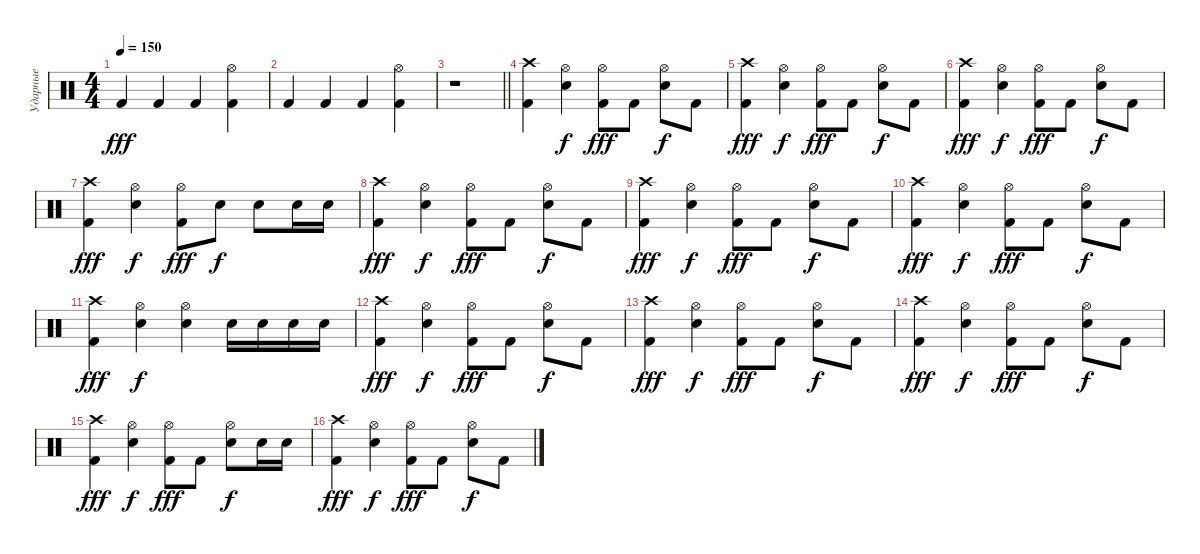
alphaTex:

\track ("Ударные" "Ударные") {instrument percussion}
\staff {score}
\articulation defaults
\ts (4 4)
\tempo 150
\clef neutral
\ks c "Kick (hit) 2".4{dy fff} "Kick (hit) 2".4 "Kick (hit) 2".4
("Kick (hit) 2" "Hi-Hat (open)").4 |
"Kick (hit) 2".4 "Kick (hit) 2".4 "Kick (hit) 2".4 ("Kick (hit) 2" "Hi-Hat (open)").4 |
\barLineRight lightlight
r.1 |
("Kick (hit) 2" "Crash high (hit)").4 ("Snare (hit) 2" "Hi-Hat (open)").4{dy f} ("Kick (hit) 2" "Hi-Hat (open)").8{dy fff} "Kick (hit) 2".8 ("Snare (hit) 2" "Hi-Hat (open)").8{dy f} "Kick (hit) 2".8 |
("Kick (hit) 2" "Crash high (hit)").4{dy fff} ("Snare (hit) 2" "Hi-Hat (open)").4{dy f} ("Kick (hit) 2" "Hi-Hat (open)").8{dy fff} "Kick (hit) 2".8 ("Snare (hit) 2" "Hi-Hat (open)").8{dy f} "Kick (hit) 2".8 |
("Kick (hit) 2" "Crash high (hit)").4{dy fff} ("Snare (hit) 2" "Hi-Hat (open)").4{dy f} ("Kick (hit) 2" "Hi-Hat (open)").8{dy fff} "Kick (hit) 2".8 ("Snare (hit) 2" "Hi-Hat (open)").8{dy f} "Kick (hit) 2".8 |
("Kick (hit) 2" "Crash high (hit)").4{dy fff} ("Snare (hit) 2" "Hi-Hat (open)").4{dy f} ("Kick (hit) 2" "Hi-Hat (open)").8{dy fff} "Snare (hit) 2".8{dy f} "Snare (hit) 2".8 "Snare (hit) 2".16 "Snare (hit) 2".16 |
("Kick (hit) 2" "Crash high (hit)").4{dy fff} ("Snare (hit) 2" "Hi-Hat (open)").4{dy f} ("Kick (hit) 2" "Hi-Hat (open)").8{dy fff} "Kick (hit) 2".8 ("Snare (hit) 2" "Hi-Hat (open)").8{dy f} "Kick (hit) 2".8 |
("Kick (hit) 2" "Crash high (hit)").4{dy fff} ("Snare (hit) 2" "Hi-Hat (open)").4{dy f} ("Kick (hit) 2" "Hi-Hat (open)").8{dy fff} "Kick (hit) 2".8 ("Snare (hit) 2" "Hi-Hat (open)").8{dy f} "Kick (hit) 2".8 |
("Kick (hit) 2" "Crash high (hit)").4{dy fff} ("Snare (hit) 2" "Hi-Hat (open)").4{dy f} ("Kick (hit) 2" "Hi-Hat (open)").8{dy fff} "Kick (hit) 2".8 ("Snare (hit) 2" "Hi-Hat (open)").8{dy f} "Kick (hit) 2".8 |
("Kick (hit) 2" "Crash high (hit)").4{dy fff} ("Snare (hit) 2" "Hi-Hat (open)").4{dy f} ("Snare (hit) 2" "Hi-Hat (open)").4 "Snare (hit) 2".16 "Snare (hit) 2".16 "Snare (hit) 2".16 "Snare (hit) 2".16 |
("Kick (hit) 2" "Crash high (hit)").4{dy fff} ("Snare (hit) 2" "Hi-Hat (open)").4{dy f} ("Kick (hit) 2" "Hi-Hat (open)").8{dy fff} "Kick (hit) 2".8 ("Snare (hit) 2" "Hi-Hat (open)").8{dy f} "Kick (hit) 2".8 |
("Kick (hit) 2" "Crash high (hit)").4{dy fff} ("Snare (hit) 2" "Hi-Hat (open)").4{dy f} ("Kick (hit) 2" "Hi-Hat (open)").8{dy fff} "Kick (hit) 2".8 ("Snare (hit) 2" "Hi-Hat (open)").8{dy f} "Kick (hit) 2".8 |
("Kick (hit) 2" "Crash high (hit)").4{dy fff} ("Snare (hit) 2" "Hi-Hat (open)").4{dy f} ("Kick (hit) 2" "Hi-Hat (open)").8{dy fff} "Kick (hit) 2".8 ("Snare (hit) 2" "Hi-Hat (open)").8{dy f} "Kick (hit) 2".8 |
("Kick (hit) 2" "Crash high (hit)").4{dy fff} ("Snare (hit) 2" "Hi-Hat (open)").4{dy f} ("Kick (hit) 2" "Hi-Hat (open)").8{dy fff} "Kick (hit) 2".8 ("Snare (hit) 2" "Hi-Hat (open)").8{dy f} "Snare (hit) 2".16 "Snare (hit) 2".16 |
("Kick (hit) 2" "Crash high (hit)").4{dy fff} ("Snare (hit) 2" "Hi-Hat (open)").4{dy f} ("Kick (hit) 2" "Hi-Hat (open)").8{dy fff} "Kick (hit) 2".8 ("Snare (hit) 2" "Hi-Hat (open)").8{dy f} "Kick (hit) 2".8
